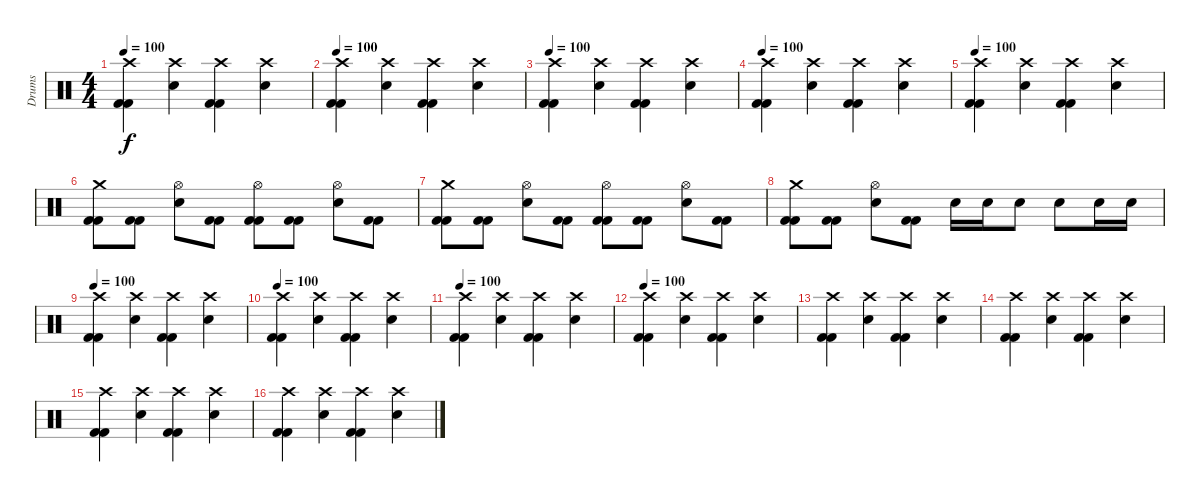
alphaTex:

\track ("Drums" "Drums") {instrument percussion}
\staff {score}
\articulation defaults
\ts (4 4)
\tempo 100
\clef neutral
\ks c
("Crash high (hit)" "Kick (hit) 2" "Kick (hit) 2").4{dy f} ("Electric Snare (hit)" "Crash high (hit)").4 ("Kick (hit) 2" "Kick (hit) 2" "Crash high (hit)").4 ("Crash high (hit)" "Electric Snare (hit)").4 |
\tempo 100
("Crash high (hit)" "Kick (hit) 2" "Kick (hit) 2").4 ("Electric Snare (hit)" "Crash high (hit)").4 ("Kick (hit) 2" "Kick (hit) 2" "Crash high (hit)").4 ("Crash high (hit)" "Electric Snare (hit)").4 |
\tempo 100
("Crash high (hit)" "Kick (hit) 2" "Kick (hit) 2").4 ("Electric Snare (hit)" "Crash high (hit)").4 ("Kick (hit) 2" "Kick (hit) 2" "Crash high (hit)").4 ("Crash high (hit)" "Electric Snare (hit)").4 |
\tempo 100
("Crash high (hit)" "Kick (hit) 2" "Kick (hit) 2").4 ("Electric Snare (hit)" "Crash high (hit)").4 ("Kick (hit) 2" "Kick (hit) 2" "Crash high (hit)").4 ("Crash high (hit)" "Electric Snare (hit)").4 |
\tempo 100
("Crash high (hit)" "Kick (hit) 2" "Kick (hit) 2").4 ("Electric Snare (hit)" "Crash high (hit)").4 ("Kick (hit) 2" "Kick (hit) 2" "Crash high (hit)").4 ("Crash high (hit)" "Electric Snare (hit)").4 |
("Crash medium (hit)" "Kick (hit) 2" "Kick (hit) 2").8 ("Kick (hit) 2" "Kick (hit) 2").8 ("Electric Snare (hit)" "Hi-Hat (open)").8 ("Kick (hit) 2" "Kick (hit) 2").8 ("Hi-Hat (open)" "Kick (hit) 2" "Kick (hit) 2").8 ("Kick (hit) 2" "Kick (hit) 2").8 ("Hi-Hat (open)" "Electric Snare (hit)").8 ("Kick (hit) 2" "Kick (hit) 2").8 |
("Crash medium (hit)" "Kick (hit) 2" "Kick (hit) 2").8 ("Kick (hit) 2" "Kick (hit) 2").8 ("Electric Snare (hit)" "Hi-Hat (open)").8 ("Kick (hit) 2" "Kick (hit) 2").8 ("Hi-Hat (open)" "Kick (hit) 2" "Kick (hit) 2").8 ("Kick (hit) 2" "Kick (hit) 2").8 ("Hi-Hat (open)" "Electric Snare (hit)").8 ("Kick (hit) 2" "Kick (hit) 2").8 |
("Crash medium (hit)" "Kick (hit) 2" "Kick (hit) 2").8 ("Kick (hit) 2" "Kick (hit) 2").8 ("Electric Snare (hit)" "Hi-Hat (open)").8 ("Kick (hit) 2" "Kick (hit) 2").8 "Electric Snare (hit)".16 "Electric Snare (hit)".16 "Electric Snare (hit)".8 "Electric Snare (hit)".8 "Electric Snare (hit)".16 "Electric Snare (hit)".16 |
\tempo 100
("Crash high (hit)" "Kick (hit) 2" "Kick (hit) 2").4 ("Electric Snare (hit)" "Crash high (hit)").4 ("Kick (hit) 2" "Kick (hit) 2" "Crash high (hit)").4 ("Crash high (hit)" "Electric Snare (hit)").4 |
\tempo 100
("Crash high (hit)" "Kick (hit) 2" "Kick (hit) 2").4 ("Electric Snare (hit)" "Crash high (hit)").4 ("Kick (hit) 2" "Kick (hit) 2" "Crash high (hit)").4 ("Crash high (hit)" "Electric Snare (hit)").4 |
\tempo 100
("Crash high (hit)" "Kick (hit) 2" "Kick (hit) 2").4 ("Electric Snare (hit)" "Crash high (hit)").4 ("Kick (hit) 2" "Kick (hit) 2" "Crash high (hit)").4 ("Crash high (hit)" "Electric Snare (hit)").4 |
\tempo 100
("Crash high (hit)" "Kick (hit) 2" "Kick (hit) 2").4 ("Electric Snare (hit)" "Crash high (hit)").4 ("Kick (hit) 2" "Kick (hit) 2" "Crash high (hit)").4 ("Crash high (hit)" "Electric Snare (hit)").4 |
("Crash high (hit)" "Kick (hit) 2" "Kick (hit) 2").4 ("Electric Snare (hit)" "Crash high (hit)").4 ("Kick (hit) 2" "Kick (hit) 2" "Crash high (hit)").4 ("Crash high (hit)" "Electric Snare (hit)").4 |
("Crash high (hit)" "Kick (hit) 2" "Kick (hit) 2").4 ("Electric Snare (hit)" "Crash high (hit)").4 ("Kick (hit) 2" "Kick (hit) 2" "Crash high (hit)").4 ("Crash high (hit)" "Electric Snare (hit)").4 |
("Crash high (hit)" "Kick (hit) 2" "Kick (hit) 2").4 ("Electric Snare (hit)" "Crash high (hit)").4 ("Kick (hit) 2" "Kick (hit) 2" "Crash high (hit)").4 ("Crash high (hit)" "Electric Snare (hit)").4 |
("Crash high (hit)" "Kick (hit) 2" "Kick (hit) 2").4 ("Electric Snare (hit)" "Crash high (hit)").4 ("Kick (hit) 2" "Kick (hit) 2" "Crash high (hit)").4 ("Crash high (hit)" "Electric Snare (hit)").4
